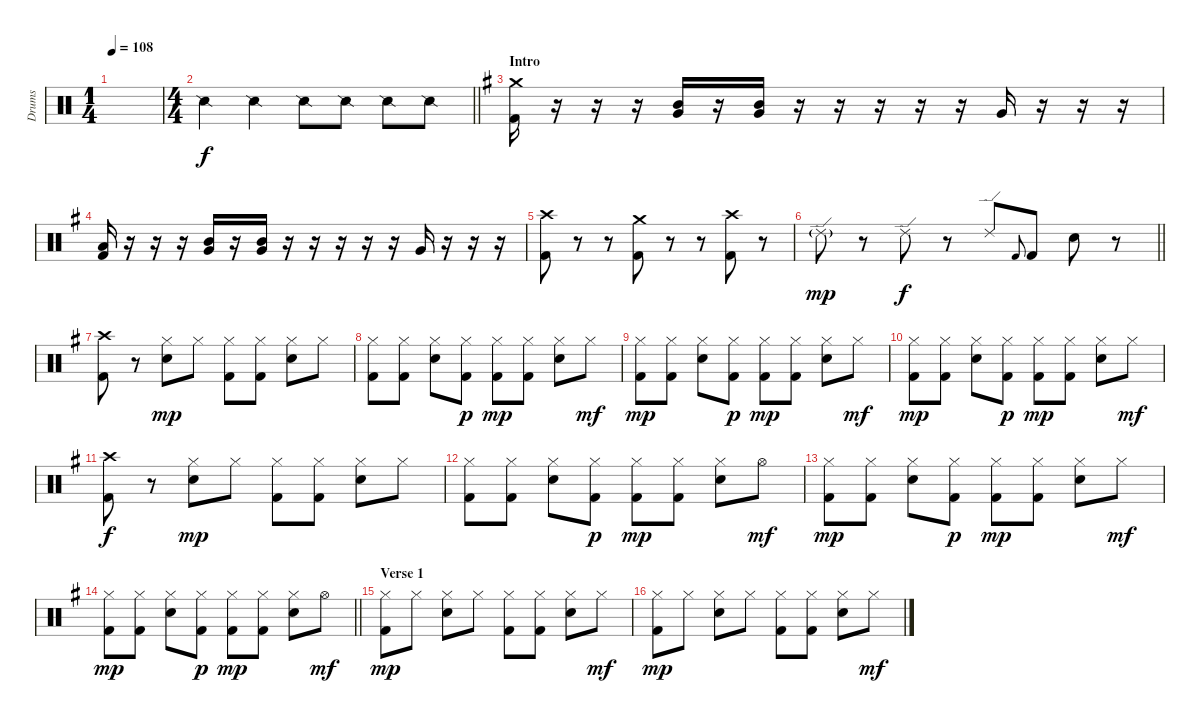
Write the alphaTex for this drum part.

\track ("Drums" "Drums") {instrument percussion}
\staff {score}
\articulation defaults
\ts (1 4)
\tempo 108
\clef neutral
\ks c
|
\ts (4 4)
\barLineRight lightlight "Snare (side stick) 2".4 "Snare (side stick) 2".4 "Snare (side stick) 2".8 "Snare (side stick) 2".8 "Snare (side stick) 2".8 "Snare (side stick) 2".8
|
\section ("" "Intro")
\ks g
("Crash medium (hit)" "Kick (hit) 2").16 r.16 r.16 r.16 ("Mid Tom (hit)" "Very Low Tom (hit)").16 r.16 ("Mid Tom (hit)" "Very Low Tom (hit)").16 r.16 r.16 r.16 r.16 r.16 "Very Low Tom (hit)".16 r.16 r.16 r.16 |
("Low Floor Tom (hit)" "Kick (hit) 2").16 r.16 r.16 r.16 ("Mid Tom (hit)" "Very Low Tom (hit)").16 r.16 ("Mid Tom (hit)" "Very Low Tom (hit)").16 r.16 r.16 r.16 r.16 r.16 "Very Low Tom (hit)".16 r.16 r.16 r.16 |
("Crash high (hit)" "Kick (hit) 2").8 r.8 r.8 ("Crash medium (hit)" "Kick (hit) 2").8 r.8 r.8 ("Crash high (hit)" "Kick (hit) 2").8 r.8 |
\barLineRight lightlight "Ride (edge) 2"{g}.8{dy mp}
r.8 "Ride (edge) 2".8{dy f} r.8 "Ride (edge) 2".8 "Kick (hit) 2".8{gr onbeat} "Kick (hit) 2".8 "Snare (hit) 2".8 r.8 |
("Crash high (hit)" "Kick (hit) 2").8 r.8 ("Hi-Hat (closed)" "Snare (hit) 2").8{dy mp} "Hi-Hat (closed)".8 ("Hi-Hat (closed)" "Kick (hit) 2").8 ("Hi-Hat (closed)" "Kick (hit) 2").8 ("Hi-Hat (closed)" "Snare (hit) 2").8 "Hi-Hat (closed)".8 |
("Hi-Hat (closed)" "Kick (hit) 2").8 ("Hi-Hat (closed)" "Kick (hit) 2").8 ("Hi-Hat (closed)" "Snare (hit) 2").8 ("Hi-Hat (closed)" "Kick (hit) 2").8{dy p} ("Hi-Hat (closed)" "Kick (hit) 2").8{dy mp} ("Hi-Hat (closed)" "Kick (hit) 2").8 ("Hi-Hat (closed)" "Snare (hit) 2").8 "Hi-Hat (closed)".8{dy mf} |
("Hi-Hat (closed)" "Kick (hit) 2").8{dy mp} ("Hi-Hat (closed)" "Kick (hit) 2").8 ("Hi-Hat (closed)" "Snare (hit) 2").8 ("Hi-Hat (closed)" "Kick (hit) 2").8{dy p} ("Hi-Hat (closed)" "Kick (hit) 2").8{dy mp} ("Hi-Hat (closed)" "Kick (hit) 2").8 ("Hi-Hat (closed)" "Snare (hit) 2").8 "Hi-Hat (closed)".8{dy mf} |
("Hi-Hat (closed)" "Kick (hit) 2").8{dy mp} ("Hi-Hat (closed)" "Kick (hit) 2").8 ("Hi-Hat (closed)" "Snare (hit) 2").8 ("Hi-Hat (closed)" "Kick (hit) 2").8{dy p} ("Hi-Hat (closed)" "Kick (hit) 2").8{dy mp} ("Hi-Hat (closed)" "Kick (hit) 2").8 ("Hi-Hat (closed)" "Snare (hit) 2").8 "Hi-Hat (closed)".8{dy mf} |
("Crash high (hit)" "Kick (hit) 2").8{dy f} r.8 ("Hi-Hat (closed)" "Snare (hit) 2").8{dy mp} "Hi-Hat (closed)".8 ("Hi-Hat (closed)" "Kick (hit) 2").8 ("Hi-Hat (closed)" "Kick (hit) 2").8 ("Hi-Hat (closed)" "Snare (hit) 2").8 "Hi-Hat (closed)".8 |
("Hi-Hat (closed)" "Kick (hit) 2").8 ("Hi-Hat (closed)" "Kick (hit) 2").8 ("Hi-Hat (closed)" "Snare (hit) 2").8 ("Hi-Hat (closed)" "Kick (hit) 2").8{dy p} ("Hi-Hat (closed)" "Kick (hit) 2").8{dy mp} ("Hi-Hat (closed)" "Kick (hit) 2").8 ("Hi-Hat (closed)" "Snare (hit) 2").8 "Hi-Hat (open)".8{dy mf} |
("Hi-Hat (closed)" "Kick (hit) 2").8{dy mp} ("Hi-Hat (closed)" "Kick (hit) 2").8 ("Hi-Hat (closed)" "Snare (hit) 2").8 ("Hi-Hat (closed)" "Kick (hit) 2").8{dy p} ("Hi-Hat (closed)" "Kick (hit) 2").8{dy mp} ("Hi-Hat (closed)" "Kick (hit) 2").8 ("Hi-Hat (closed)" "Snare (hit) 2").8 "Hi-Hat (closed)".8{dy mf} |
\barLineRight lightlight
("Hi-Hat (closed)" "Kick (hit) 2").8{dy mp} ("Hi-Hat (closed)" "Kick (hit) 2").8 ("Hi-Hat (closed)" "Snare (hit) 2").8 ("Hi-Hat (closed)" "Kick (hit) 2").8{dy p} ("Hi-Hat (closed)" "Kick (hit) 2").8{dy mp} ("Hi-Hat (closed)" "Kick (hit) 2").8 ("Hi-Hat (closed)" "Snare (hit) 2").8 "Hi-Hat (open)".8{dy mf} |
\section ("" "Verse 1")
("Hi-Hat (closed)" "Kick (hit) 2").8{dy mp} "Hi-Hat (closed)".8 ("Hi-Hat (closed)" "Snare (hit) 2").8 "Hi-Hat (closed)".8 ("Hi-Hat (closed)" "Kick (hit) 2").8 ("Hi-Hat (closed)" "Kick (hit) 2").8 ("Hi-Hat (closed)" "Snare (hit) 2").8 "Hi-Hat (closed)".8{dy mf} |
("Hi-Hat (closed)" "Kick (hit) 2").8{dy mp} "Hi-Hat (closed)".8 ("Hi-Hat (closed)" "Snare (hit) 2").8 "Hi-Hat (closed)".8 ("Hi-Hat (closed)" "Kick (hit) 2").8 ("Hi-Hat (closed)" "Kick (hit) 2").8 ("Hi-Hat (closed)" "Snare (hit) 2").8 "Hi-Hat (closed)".8{dy mf}
